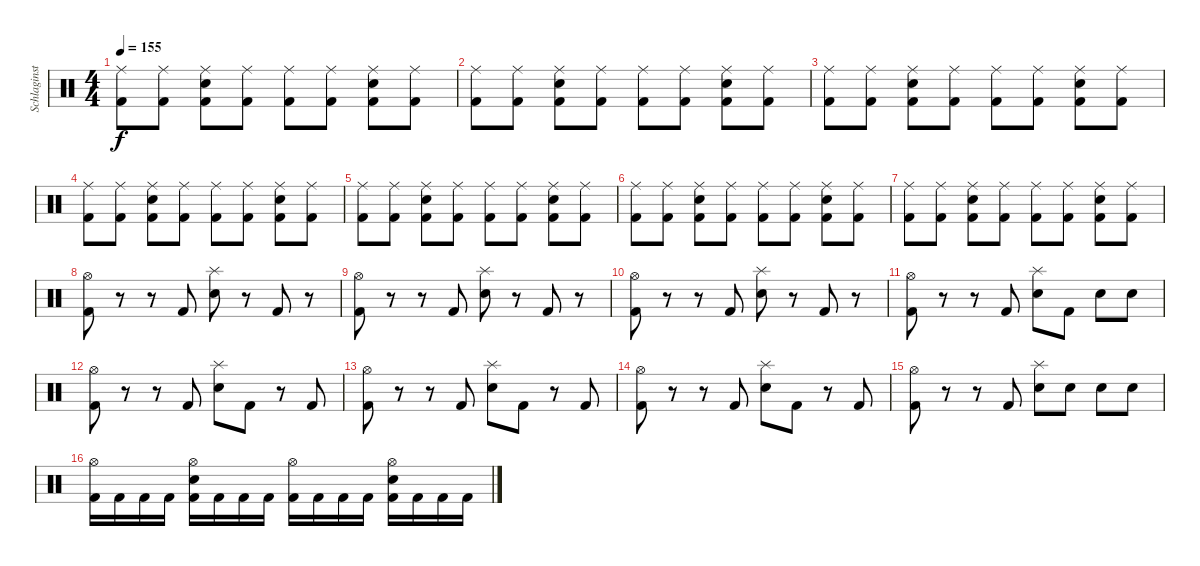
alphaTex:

\track ("Schlaginstrumente - Auswahl" "Schlaginst") {instrument percussion}
\staff {score}
\articulation defaults
\ts (4 4)
\tempo 155
\clef neutral
\ks c
("Ride (middle)" "Kick (hit) 2").8{dy f} ("Ride (middle)" "Kick (hit) 2").8 ("Ride (middle)" "Snare (hit) 2" "Kick (hit) 2").8 ("Ride (middle)" "Kick (hit) 2").8 ("Ride (middle)" "Kick (hit) 2").8 ("Ride (middle)" "Kick (hit) 2").8 ("Ride (middle)" "Snare (hit) 2" "Kick (hit) 2").8 ("Ride (middle)" "Kick (hit) 2").8 |
("Ride (middle)" "Kick (hit) 2").8 ("Ride (middle)" "Kick (hit) 2").8 ("Ride (middle)" "Snare (hit) 2" "Kick (hit) 2").8 ("Ride (middle)" "Kick (hit) 2").8 ("Ride (middle)" "Kick (hit) 2").8 ("Ride (middle)" "Kick (hit) 2").8 ("Ride (middle)" "Snare (hit) 2" "Kick (hit) 2").8 ("Ride (middle)" "Kick (hit) 2").8 |
("Ride (middle)" "Kick (hit) 2").8 ("Ride (middle)" "Kick (hit) 2").8 ("Ride (middle)" "Snare (hit) 2" "Kick (hit) 2").8 ("Ride (middle)" "Kick (hit) 2").8 ("Ride (middle)" "Kick (hit) 2").8 ("Ride (middle)" "Kick (hit) 2").8 ("Ride (middle)" "Snare (hit) 2" "Kick (hit) 2").8 ("Ride (middle)" "Kick (hit) 2").8 |
("Ride (middle)" "Kick (hit) 2").8 ("Ride (middle)" "Kick (hit) 2").8 ("Ride (middle)" "Snare (hit) 2" "Kick (hit) 2").8 ("Ride (middle)" "Kick (hit) 2").8 ("Ride (middle)" "Kick (hit) 2").8 ("Ride (middle)" "Kick (hit) 2").8 ("Ride (middle)" "Snare (hit) 2" "Kick (hit) 2").8 ("Ride (middle)" "Kick (hit) 2").8 |
("Ride (middle)" "Kick (hit) 2").8 ("Ride (middle)" "Kick (hit) 2").8 ("Ride (middle)" "Snare (hit) 2" "Kick (hit) 2").8 ("Ride (middle)" "Kick (hit) 2").8 ("Ride (middle)" "Kick (hit) 2").8 ("Ride (middle)" "Kick (hit) 2").8 ("Ride (middle)" "Snare (hit) 2" "Kick (hit) 2").8 ("Ride (middle)" "Kick (hit) 2").8 |
("Ride (middle)" "Kick (hit) 2").8 ("Ride (middle)" "Kick (hit) 2").8 ("Ride (middle)" "Snare (hit) 2" "Kick (hit) 2").8 ("Ride (middle)" "Kick (hit) 2").8 ("Ride (middle)" "Kick (hit) 2").8 ("Ride (middle)" "Kick (hit) 2").8 ("Ride (middle)" "Snare (hit) 2" "Kick (hit) 2").8 ("Ride (middle)" "Kick (hit) 2").8 |
("Ride (middle)" "Kick (hit) 2").8 ("Ride (middle)" "Kick (hit) 2").8 ("Ride (middle)" "Snare (hit) 2" "Kick (hit) 2").8 ("Ride (middle)" "Kick (hit) 2").8 ("Ride (middle)" "Kick (hit) 2").8 ("Ride (middle)" "Kick (hit) 2").8 ("Ride (middle)" "Snare (hit) 2" "Kick (hit) 2").8 ("Ride (middle)" "Kick (hit) 2").8 |
("Hi-Hat (open)" "Kick (hit) 2").8 r.8 r.8 "Kick (hit) 2".8 ("Splash (hit)" "Snare (hit) 2").8 r.8 "Kick (hit) 2".8 r.8 |
("Hi-Hat (open)" "Kick (hit) 2").8 r.8 r.8 "Kick (hit) 2".8 ("Splash (hit)" "Snare (hit) 2").8 r.8 "Kick (hit) 2".8 r.8 |
("Hi-Hat (open)" "Kick (hit) 2").8 r.8 r.8 "Kick (hit) 2".8 ("Splash (hit)" "Snare (hit) 2").8 r.8 "Kick (hit) 2".8 r.8 |
("Hi-Hat (open)" "Kick (hit) 2").8 r.8 r.8 "Kick (hit) 2".8 ("Splash (hit)" "Snare (hit) 2").8 "Kick (hit) 2".8 "Snare (hit) 2".8 "Snare (hit) 2".8 |
("Hi-Hat (open)" "Kick (hit) 2").8 r.8 r.8 "Kick (hit) 2".8 ("Splash (hit)" "Snare (hit) 2").8 "Kick (hit) 2".8 r.8 "Kick (hit) 2".8 |
("Hi-Hat (open)" "Kick (hit) 2").8 r.8 r.8 "Kick (hit) 2".8 ("Splash (hit)" "Snare (hit) 2").8 "Kick (hit) 2".8 r.8 "Kick (hit) 2".8 |
("Hi-Hat (open)" "Kick (hit) 2").8 r.8 r.8 "Kick (hit) 2".8 ("Splash (hit)" "Snare (hit) 2").8 "Kick (hit) 2".8 r.8 "Kick (hit) 2".8 |
("Hi-Hat (open)" "Kick (hit) 2").8 r.8 r.8 "Kick (hit) 2".8 ("Splash (hit)" "Snare (hit) 2").8 "Snare (hit) 2".8 "Snare (hit) 2".8 "Snare (hit) 2".8 |
("Hi-Hat (open)" "Kick (hit) 2").16 "Kick (hit) 2".16 "Kick (hit) 2".16 "Kick (hit) 2".16 ("Hi-Hat (open)" "Snare (hit) 2" "Kick (hit) 2").16 "Kick (hit) 2".16 "Kick (hit) 2".16 "Kick (hit) 2".16 ("Hi-Hat (open)" "Kick (hit) 2").16 "Kick (hit) 2".16 "Kick (hit) 2".16 "Kick (hit) 2".16 ("Hi-Hat (open)" "Snare (hit) 2" "Kick (hit) 2").16 "Kick (hit) 2".16 "Kick (hit) 2".16 "Kick (hit) 2".16
